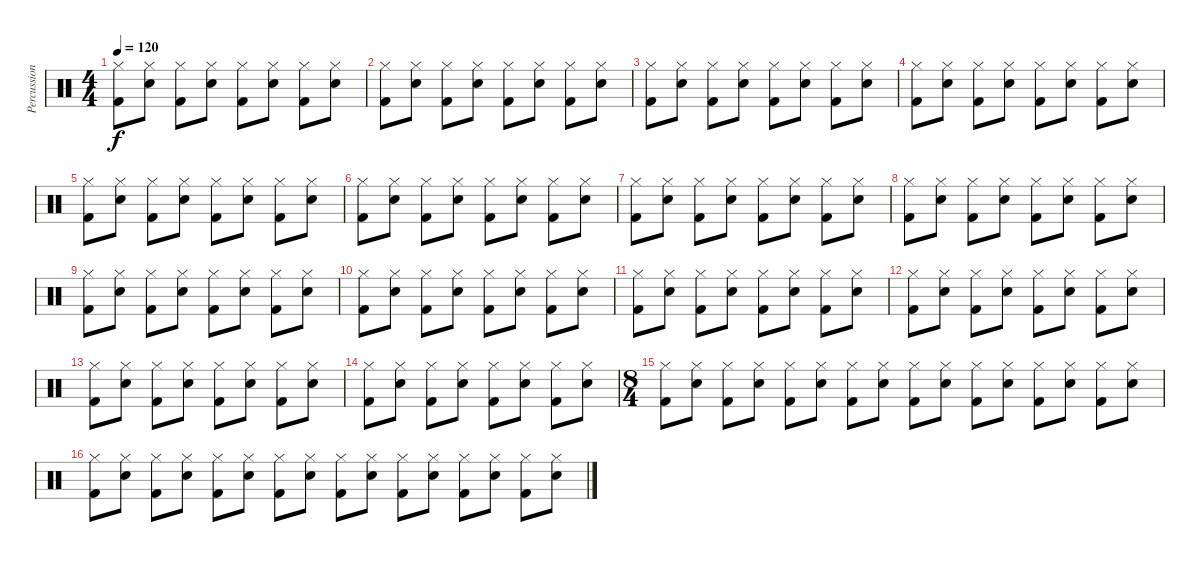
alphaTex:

\track ("Percussion" "Percussion") {instrument percussion}
\staff {score}
\articulation defaults
\ts (4 4)
\tempo 120
\clef neutral
\ks c
("Hi-Hat (closed)" "Kick (hit) 2").8{dy f} ("Hi-Hat (closed)" "Electric Snare (hit)").8 ("Hi-Hat (closed)" "Kick (hit) 2").8 ("Hi-Hat (closed)" "Electric Snare (hit)").8 ("Hi-Hat (closed)" "Kick (hit) 2").8 ("Hi-Hat (closed)" "Electric Snare (hit)").8 ("Hi-Hat (closed)" "Kick (hit) 2").8 ("Hi-Hat (closed)" "Electric Snare (hit)").8 |
("Hi-Hat (closed)" "Kick (hit) 2").8 ("Hi-Hat (closed)" "Electric Snare (hit)").8 ("Hi-Hat (closed)" "Kick (hit) 2").8 ("Hi-Hat (closed)" "Electric Snare (hit)").8 ("Hi-Hat (closed)" "Kick (hit) 2").8 ("Hi-Hat (closed)" "Electric Snare (hit)").8 ("Hi-Hat (closed)" "Kick (hit) 2").8 ("Hi-Hat (closed)" "Electric Snare (hit)").8 |
("Hi-Hat (closed)" "Kick (hit) 2").8 ("Hi-Hat (closed)" "Electric Snare (hit)").8 ("Hi-Hat (closed)" "Kick (hit) 2").8 ("Hi-Hat (closed)" "Electric Snare (hit)").8 ("Hi-Hat (closed)" "Kick (hit) 2").8 ("Hi-Hat (closed)" "Electric Snare (hit)").8 ("Hi-Hat (closed)" "Kick (hit) 2").8 ("Hi-Hat (closed)" "Electric Snare (hit)").8 |
("Hi-Hat (closed)" "Kick (hit) 2").8 ("Hi-Hat (closed)" "Electric Snare (hit)").8 ("Hi-Hat (closed)" "Kick (hit) 2").8 ("Hi-Hat (closed)" "Electric Snare (hit)").8 ("Hi-Hat (closed)" "Kick (hit) 2").8 ("Hi-Hat (closed)" "Electric Snare (hit)").8 ("Hi-Hat (closed)" "Kick (hit) 2").8 ("Hi-Hat (closed)" "Electric Snare (hit)").8 |
("Hi-Hat (closed)" "Kick (hit) 2").8 ("Hi-Hat (closed)" "Electric Snare (hit)").8 ("Hi-Hat (closed)" "Kick (hit) 2").8 ("Hi-Hat (closed)" "Electric Snare (hit)").8 ("Hi-Hat (closed)" "Kick (hit) 2").8 ("Hi-Hat (closed)" "Electric Snare (hit)").8 ("Hi-Hat (closed)" "Kick (hit) 2").8 ("Hi-Hat (closed)" "Electric Snare (hit)").8 |
("Hi-Hat (closed)" "Kick (hit) 2").8 ("Hi-Hat (closed)" "Electric Snare (hit)").8 ("Hi-Hat (closed)" "Kick (hit) 2").8 ("Hi-Hat (closed)" "Electric Snare (hit)").8 ("Hi-Hat (closed)" "Kick (hit) 2").8 ("Hi-Hat (closed)" "Electric Snare (hit)").8 ("Hi-Hat (closed)" "Kick (hit) 2").8 ("Hi-Hat (closed)" "Electric Snare (hit)").8 |
("Hi-Hat (closed)" "Kick (hit) 2").8 ("Hi-Hat (closed)" "Electric Snare (hit)").8 ("Hi-Hat (closed)" "Kick (hit) 2").8 ("Hi-Hat (closed)" "Electric Snare (hit)").8 ("Hi-Hat (closed)" "Kick (hit) 2").8 ("Hi-Hat (closed)" "Electric Snare (hit)").8 ("Hi-Hat (closed)" "Kick (hit) 2").8 ("Hi-Hat (closed)" "Electric Snare (hit)").8 |
("Hi-Hat (closed)" "Kick (hit) 2").8 ("Hi-Hat (closed)" "Electric Snare (hit)").8 ("Hi-Hat (closed)" "Kick (hit) 2").8 ("Hi-Hat (closed)" "Electric Snare (hit)").8 ("Hi-Hat (closed)" "Kick (hit) 2").8 ("Hi-Hat (closed)" "Electric Snare (hit)").8 ("Hi-Hat (closed)" "Kick (hit) 2").8 ("Hi-Hat (closed)" "Electric Snare (hit)").8 |
("Hi-Hat (closed)" "Kick (hit) 2").8 ("Hi-Hat (closed)" "Electric Snare (hit)").8 ("Hi-Hat (closed)" "Kick (hit) 2").8 ("Hi-Hat (closed)" "Electric Snare (hit)").8 ("Hi-Hat (closed)" "Kick (hit) 2").8 ("Hi-Hat (closed)" "Electric Snare (hit)").8 ("Hi-Hat (closed)" "Kick (hit) 2").8 ("Hi-Hat (closed)" "Electric Snare (hit)").8 |
("Hi-Hat (closed)" "Kick (hit) 2").8 ("Hi-Hat (closed)" "Electric Snare (hit)").8 ("Hi-Hat (closed)" "Kick (hit) 2").8 ("Hi-Hat (closed)" "Electric Snare (hit)").8 ("Hi-Hat (closed)" "Kick (hit) 2").8 ("Hi-Hat (closed)" "Electric Snare (hit)").8 ("Hi-Hat (closed)" "Kick (hit) 2").8 ("Hi-Hat (closed)" "Electric Snare (hit)").8 |
("Hi-Hat (closed)" "Kick (hit) 2").8 ("Hi-Hat (closed)" "Electric Snare (hit)").8 ("Hi-Hat (closed)" "Kick (hit) 2").8 ("Hi-Hat (closed)" "Electric Snare (hit)").8 ("Hi-Hat (closed)" "Kick (hit) 2").8 ("Hi-Hat (closed)" "Electric Snare (hit)").8 ("Hi-Hat (closed)" "Kick (hit) 2").8 ("Hi-Hat (closed)" "Electric Snare (hit)").8 |
("Hi-Hat (closed)" "Kick (hit) 2").8 ("Hi-Hat (closed)" "Electric Snare (hit)").8 ("Hi-Hat (closed)" "Kick (hit) 2").8 ("Hi-Hat (closed)" "Electric Snare (hit)").8 ("Hi-Hat (closed)" "Kick (hit) 2").8 ("Hi-Hat (closed)" "Electric Snare (hit)").8 ("Hi-Hat (closed)" "Kick (hit) 2").8 ("Hi-Hat (closed)" "Electric Snare (hit)").8 |
("Hi-Hat (closed)" "Kick (hit) 2").8 ("Hi-Hat (closed)" "Electric Snare (hit)").8 ("Hi-Hat (closed)" "Kick (hit) 2").8 ("Hi-Hat (closed)" "Electric Snare (hit)").8 ("Hi-Hat (closed)" "Kick (hit) 2").8 ("Hi-Hat (closed)" "Electric Snare (hit)").8 ("Hi-Hat (closed)" "Kick (hit) 2").8 ("Hi-Hat (closed)" "Electric Snare (hit)").8 |
("Hi-Hat (closed)" "Kick (hit) 2").8 ("Hi-Hat (closed)" "Electric Snare (hit)").8 ("Hi-Hat (closed)" "Kick (hit) 2").8 ("Hi-Hat (closed)" "Electric Snare (hit)").8 ("Hi-Hat (closed)" "Kick (hit) 2").8 ("Hi-Hat (closed)" "Electric Snare (hit)").8 ("Hi-Hat (closed)" "Kick (hit) 2").8 ("Hi-Hat (closed)" "Electric Snare (hit)").8 |
\ts (8 4)
("Hi-Hat (closed)" "Kick (hit) 2").8 ("Hi-Hat (closed)" "Electric Snare (hit)").8 ("Hi-Hat (closed)" "Kick (hit) 2").8 ("Hi-Hat (closed)" "Electric Snare (hit)").8 ("Hi-Hat (closed)" "Kick (hit) 2").8 ("Hi-Hat (closed)" "Electric Snare (hit)").8 ("Hi-Hat (closed)" "Kick (hit) 2").8 ("Hi-Hat (closed)" "Electric Snare (hit)").8 ("Hi-Hat (closed)" "Kick (hit) 2").8 ("Hi-Hat (closed)" "Electric Snare (hit)").8 ("Hi-Hat (closed)" "Kick (hit) 2").8 ("Hi-Hat (closed)" "Electric Snare (hit)").8 ("Hi-Hat (closed)" "Kick (hit) 2").8 ("Hi-Hat (closed)" "Electric Snare (hit)").8 ("Hi-Hat (closed)" "Kick (hit) 2").8 ("Hi-Hat (closed)" "Electric Snare (hit)").8 |
("Hi-Hat (closed)" "Kick (hit) 2").8 ("Hi-Hat (closed)" "Electric Snare (hit)").8 ("Hi-Hat (closed)" "Kick (hit) 2").8 ("Hi-Hat (closed)" "Electric Snare (hit)").8 ("Hi-Hat (closed)" "Kick (hit) 2").8 ("Hi-Hat (closed)" "Electric Snare (hit)").8 ("Hi-Hat (closed)" "Kick (hit) 2").8 ("Hi-Hat (closed)" "Electric Snare (hit)").8 ("Hi-Hat (closed)" "Kick (hit) 2").8 ("Hi-Hat (closed)" "Electric Snare (hit)").8 ("Hi-Hat (closed)" "Kick (hit) 2").8 ("Hi-Hat (closed)" "Electric Snare (hit)").8 ("Hi-Hat (closed)" "Kick (hit) 2").8 ("Hi-Hat (closed)" "Electric Snare (hit)").8 ("Hi-Hat (closed)" "Kick (hit) 2").8 ("Hi-Hat (closed)" "Electric Snare (hit)").8
